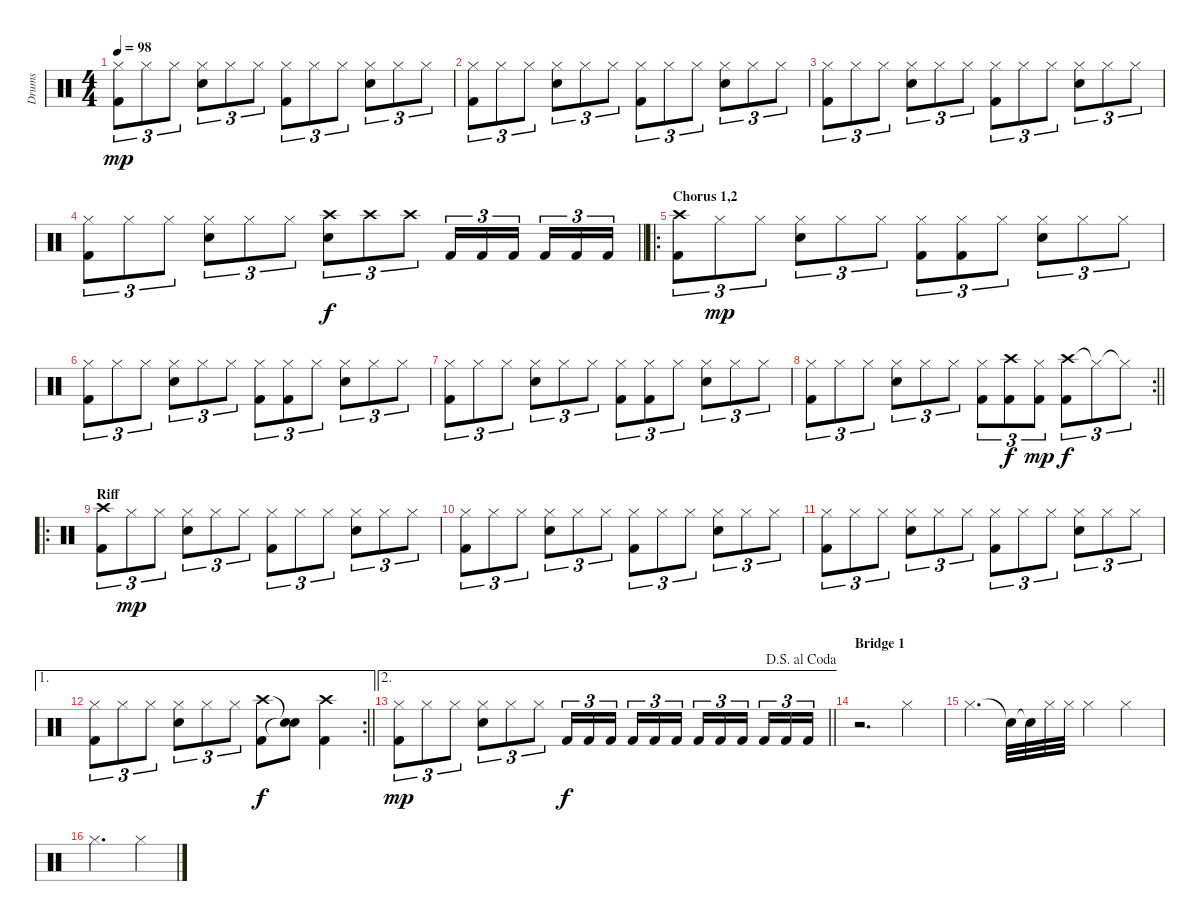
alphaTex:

\track ("Drums" "Drums") {instrument percussion}
\staff {score}
\articulation defaults
\ts (4 4)
\tempo 98
\clef neutral
\ks c
("Hi-Hat (closed)" "Kick (hit) 2").8{tu (3 2) dy mp} "Hi-Hat (closed)".8{tu (3 2)} "Hi-Hat (closed)".8{tu (3 2)} ("Hi-Hat (closed)" "Snare (hit) 2").8{tu (3 2)} "Hi-Hat (closed)".8{tu (3 2)} "Hi-Hat (closed)".8{tu (3 2)} ("Hi-Hat (closed)" "Kick (hit) 2").8{tu (3 2)} "Hi-Hat (closed)".8{tu (3 2)} "Hi-Hat (closed)".8{tu (3 2)} ("Hi-Hat (closed)" "Snare (hit) 2").8{tu (3 2)} "Hi-Hat (closed)".8{tu (3 2)} "Hi-Hat (closed)".8{tu (3 2)} |
("Hi-Hat (closed)" "Kick (hit) 2").8{tu (3 2)} "Hi-Hat (closed)".8{tu (3 2)} "Hi-Hat (closed)".8{tu (3 2)} ("Hi-Hat (closed)" "Snare (hit) 2").8{tu (3 2)} "Hi-Hat (closed)".8{tu (3 2)} "Hi-Hat (closed)".8{tu (3 2)} ("Hi-Hat (closed)" "Kick (hit) 2").8{tu (3 2)} "Hi-Hat (closed)".8{tu (3 2)} "Hi-Hat (closed)".8{tu (3 2)} ("Hi-Hat (closed)" "Snare (hit) 2").8{tu (3 2)} "Hi-Hat (closed)".8{tu (3 2)} "Hi-Hat (closed)".8{tu (3 2)} |
("Hi-Hat (closed)" "Kick (hit) 2").8{tu (3 2)} "Hi-Hat (closed)".8{tu (3 2)} "Hi-Hat (closed)".8{tu (3 2)} ("Hi-Hat (closed)" "Snare (hit) 2").8{tu (3 2)} "Hi-Hat (closed)".8{tu (3 2)} "Hi-Hat (closed)".8{tu (3 2)} ("Hi-Hat (closed)" "Kick (hit) 2").8{tu (3 2)} "Hi-Hat (closed)".8{tu (3 2)} "Hi-Hat (closed)".8{tu (3 2)} ("Hi-Hat (closed)" "Snare (hit) 2").8{tu (3 2)} "Hi-Hat (closed)".8{tu (3 2)} "Hi-Hat (closed)".8{tu (3 2)} |
\barLineRight lightlight
("Hi-Hat (closed)" "Kick (hit) 2").8{tu (3 2)} "Hi-Hat (closed)".8{tu (3 2)} "Hi-Hat (closed)".8{tu (3 2)} ("Hi-Hat (closed)" "Snare (hit) 2").8{tu (3 2)} "Hi-Hat (closed)".8{tu (3 2)} "Hi-Hat (closed)".8{tu (3 2)} ("Crash high (hit)" "Snare (hit) 2").8{tu (3 2) dy f} "Crash high (hit)".8{tu (3 2)} "Crash high (hit)".8{tu (3 2)} "Kick (hit) 2".16{tu (3 2)} "Kick (hit) 2".16{tu (3 2)} "Kick (hit) 2".16{tu (3 2) beam splitsecondary} "Kick (hit) 2".16{tu (3 2)} "Kick (hit) 2".16{tu (3 2)} "Kick (hit) 2".16{tu (3 2)} |
\ro
\section ("" "Chorus 1,2")
("Crash high (hit)" "Kick (hit) 2").8{tu (3 2)} "Hi-Hat (closed)".8{tu (3 2) dy mp} "Hi-Hat (closed)".8{tu (3 2)} ("Hi-Hat (closed)" "Snare (hit) 2").8{tu (3 2)} "Hi-Hat (closed)".8{tu (3 2)} "Hi-Hat (closed)".8{tu (3 2)} ("Hi-Hat (closed)" "Kick (hit) 2").8{tu (3 2)} ("Hi-Hat (closed)" "Kick (hit) 2").8{tu (3 2)} "Hi-Hat (closed)".8{tu (3 2)} ("Hi-Hat (closed)" "Snare (hit) 2").8{tu (3 2)} "Hi-Hat (closed)".8{tu (3 2)} "Hi-Hat (closed)".8{tu (3 2)} |
("Hi-Hat (closed)" "Kick (hit) 2").8{tu (3 2)} "Hi-Hat (closed)".8{tu (3 2)} "Hi-Hat (closed)".8{tu (3 2)} ("Hi-Hat (closed)" "Snare (hit) 2").8{tu (3 2)} "Hi-Hat (closed)".8{tu (3 2)} "Hi-Hat (closed)".8{tu (3 2)} ("Hi-Hat (closed)" "Kick (hit) 2").8{tu (3 2)} ("Hi-Hat (closed)" "Kick (hit) 2").8{tu (3 2)} "Hi-Hat (closed)".8{tu (3 2)} ("Hi-Hat (closed)" "Snare (hit) 2").8{tu (3 2)} "Hi-Hat (closed)".8{tu (3 2)} "Hi-Hat (closed)".8{tu (3 2)} |
("Hi-Hat (closed)" "Kick (hit) 2").8{tu (3 2)} "Hi-Hat (closed)".8{tu (3 2)} "Hi-Hat (closed)".8{tu (3 2)} ("Hi-Hat (closed)" "Snare (hit) 2").8{tu (3 2)} "Hi-Hat (closed)".8{tu (3 2)} "Hi-Hat (closed)".8{tu (3 2)} ("Hi-Hat (closed)" "Kick (hit) 2").8{tu (3 2)} ("Hi-Hat (closed)" "Kick (hit) 2").8{tu (3 2)} "Hi-Hat (closed)".8{tu (3 2)} ("Hi-Hat (closed)" "Snare (hit) 2").8{tu (3 2)} "Hi-Hat (closed)".8{tu (3 2)} "Hi-Hat (closed)".8{tu (3 2)} |
\rc 2
\barLineRight lightlight
("Hi-Hat (closed)" "Kick (hit) 2").8{tu (3 2)} "Hi-Hat (closed)".8{tu (3 2)} "Hi-Hat (closed)".8{tu (3 2)} ("Hi-Hat (closed)" "Snare (hit) 2").8{tu (3 2)} "Hi-Hat (closed)".8{tu (3 2)} "Hi-Hat (closed)".8{tu (3 2)} ("Hi-Hat (closed)" "Kick (hit) 2").8{tu (3 2)} ("Crash high (hit)" "Kick (hit) 2").8{tu (3 2) dy f} ("Hi-Hat (closed)" "Kick (hit) 2").8{tu (3 2) dy mp} ("Crash high (hit)" "Kick (hit) 2").8{tu (3 2) dy f} "Hi-Hat (closed)"{t}.8{tu (3 2)} "Hi-Hat (closed)"{t}.8{tu (3 2)} |
\ro
\section ("" "Riff")
("Crash high (hit)" "Kick (hit) 2").8{tu (3 2)} "Hi-Hat (closed)".8{tu (3 2) dy mp} "Hi-Hat (closed)".8{tu (3 2)} ("Hi-Hat (closed)" "Snare (hit) 2").8{tu (3 2)} "Hi-Hat (closed)".8{tu (3 2)} "Hi-Hat (closed)".8{tu (3 2)} ("Hi-Hat (closed)" "Kick (hit) 2").8{tu (3 2)} "Hi-Hat (closed)".8{tu (3 2)} "Hi-Hat (closed)".8{tu (3 2)} ("Hi-Hat (closed)" "Snare (hit) 2").8{tu (3 2)} "Hi-Hat (closed)".8{tu (3 2)} "Hi-Hat (closed)".8{tu (3 2)} |
("Hi-Hat (closed)" "Kick (hit) 2").8{tu (3 2)} "Hi-Hat (closed)".8{tu (3 2)} "Hi-Hat (closed)".8{tu (3 2)} ("Hi-Hat (closed)" "Snare (hit) 2").8{tu (3 2)} "Hi-Hat (closed)".8{tu (3 2)} "Hi-Hat (closed)".8{tu (3 2)} ("Hi-Hat (closed)" "Kick (hit) 2").8{tu (3 2)} "Hi-Hat (closed)".8{tu (3 2)} "Hi-Hat (closed)".8{tu (3 2)} ("Hi-Hat (closed)" "Snare (hit) 2").8{tu (3 2)} "Hi-Hat (closed)".8{tu (3 2)} "Hi-Hat (closed)".8{tu (3 2)} |
("Hi-Hat (closed)" "Kick (hit) 2").8{tu (3 2)} "Hi-Hat (closed)".8{tu (3 2)} "Hi-Hat (closed)".8{tu (3 2)} ("Hi-Hat (closed)" "Snare (hit) 2").8{tu (3 2)} "Hi-Hat (closed)".8{tu (3 2)} "Hi-Hat (closed)".8{tu (3 2)} ("Hi-Hat (closed)" "Kick (hit) 2").8{tu (3 2)} "Hi-Hat (closed)".8{tu (3 2)} "Hi-Hat (closed)".8{tu (3 2)} ("Hi-Hat (closed)" "Snare (hit) 2").8{tu (3 2)} "Hi-Hat (closed)".8{tu (3 2)} "Hi-Hat (closed)".8{tu (3 2)} |
\ae 1
\rc 2
\barLineRight lightlight
("Hi-Hat (closed)" "Kick (hit) 2").8{tu (3 2)} "Hi-Hat (closed)".8{tu (3 2)} "Hi-Hat (closed)".8{tu (3 2)} ("Hi-Hat (closed)" "Snare (hit) 2").8{tu (3 2)} "Hi-Hat (closed)".8{tu (3 2)} "Hi-Hat (closed)".8{tu (3 2)} ("Crash high (hit)" "Kick (hit) 2").8{dy f} ("Snare (hit)"{t} "Snare (hit)"{t}).8 ("Crash high (hit)" "Kick (hit) 2").4 |
\ae 2
\jump dalsegnoalcoda
\barLineRight lightlight
("Hi-Hat (closed)" "Kick (hit) 2").8{tu (3 2) dy mp} "Hi-Hat (closed)".8{tu (3 2)} "Hi-Hat (closed)".8{tu (3 2)} ("Hi-Hat (closed)" "Snare (hit) 2").8{tu (3 2)} "Hi-Hat (closed)".8{tu (3 2)} "Hi-Hat (closed)".8{tu (3 2)} "Kick (hit) 2".16{tu (3 2) dy f} "Kick (hit) 2".16{tu (3 2)} "Kick (hit) 2".16{tu (3 2) beam splitsecondary} "Kick (hit) 2".16{tu (3 2)} "Kick (hit) 2".16{tu (3 2)} "Kick (hit) 2".16{tu (3 2)} "Kick (hit) 2".16{tu (3 2)} "Kick (hit) 2".16{tu (3 2)} "Kick (hit) 2".16{tu (3 2) beam splitsecondary} "Kick (hit) 2".16{tu (3 2)} "Kick (hit) 2".16{tu (3 2)} "Kick (hit) 2".16{tu (3 2)} |
\section ("" "Bridge 1")
r.2{d} "Hi-Hat (closed)".4 |
"Hi-Hat (closed)".4{d} "Snare (hit)"{t}.32 "Snare (hit)"{t}.32 "Hi-Hat (closed)".32 "Hi-Hat (closed)".32 "Hi-Hat (closed)".4 "Hi-Hat (closed)".4 |
"Hi-Hat (closed)".2{d} "Hi-Hat (closed)".4
